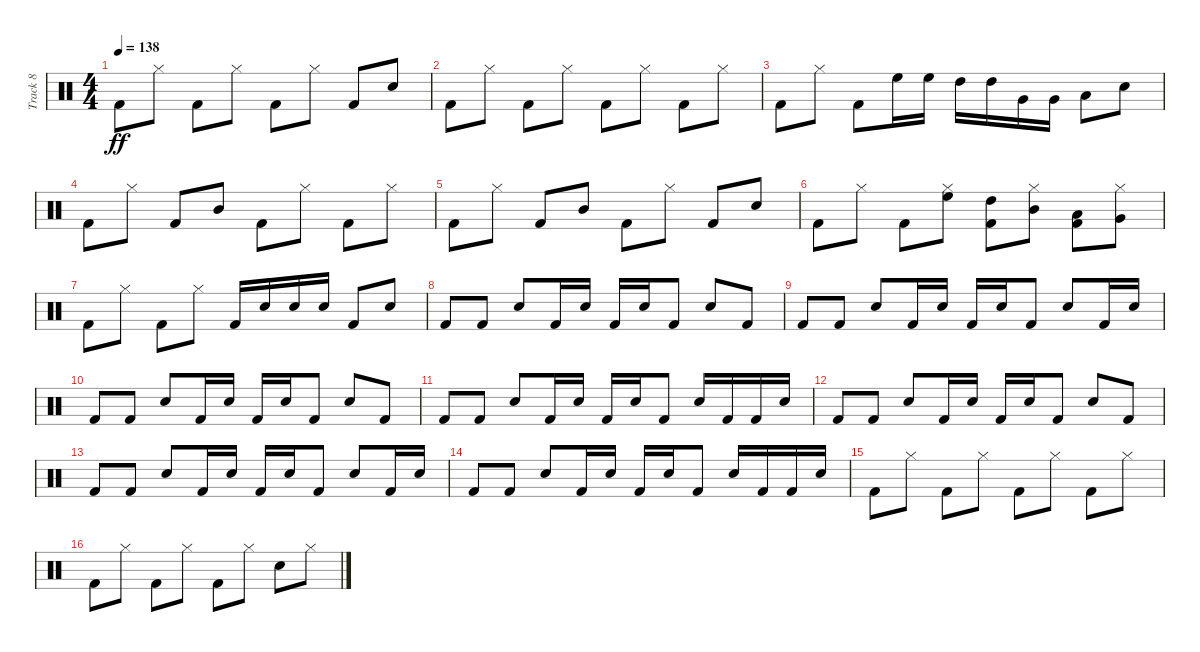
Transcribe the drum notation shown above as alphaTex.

\track ("Track 8" "Track 8") {instrument percussion}
\staff {score}
\articulation defaults
\ts (4 4)
\tempo 138
\clef neutral
\ks c "Kick (hit) 2".8{dy ff} "Hi-Hat (closed)".8 "Kick (hit) 2".8 "Hi-Hat (closed)".8 "Kick (hit) 2".8 "Hi-Hat (closed)".8 "Kick (hit) 2".8 "Snare (hit) 2".8
|
"Kick (hit) 2".8 "Hi-Hat (closed)".8 "Kick (hit) 2".8 "Hi-Hat (closed)".8 "Kick (hit) 2".8 "Hi-Hat (closed)".8 "Kick (hit) 2".8 "Hi-Hat (closed)".8 |
"Kick (hit) 2".8 "Hi-Hat (closed)".8 "Kick (hit) 2".8 "High Floor Tom (hit)".16 "High Floor Tom (hit)".16 "High Tom (hit)".16 "High Tom (hit)".16 "Very Low Tom (hit)".16 "Very Low Tom (hit)".16 "Low Tom (hit)".8 "Snare (hit) 2".8 |
"Kick (hit) 2".8 "Hi-Hat (closed)".8 "Kick (hit) 2".8 "Mid Tom (hit)".8 "Kick (hit) 2".8 "Hi-Hat (closed)".8 "Kick (hit) 2".8 "Hi-Hat (closed)".8 |
"Kick (hit) 2".8 "Hi-Hat (closed)".8 "Kick (hit) 2".8 "Mid Tom (hit)".8 "Kick (hit) 2".8 "Hi-Hat (closed)".8 "Kick (hit) 2".8 "Snare (hit) 2".8 |
"Kick (hit) 2".8 "Hi-Hat (closed)".8 "Kick (hit) 2".8 ("Hi-Hat (closed)" "High Floor Tom (hit)").8 ("Kick (hit) 2" "High Tom (hit)").8 ("Hi-Hat (closed)" "Mid Tom (hit)").8 ("Kick (hit) 2" "Low Tom (hit)").8 ("Hi-Hat (closed)" "Very Low Tom (hit)").8 |
"Kick (hit) 2".8 "Hi-Hat (closed)".8 "Kick (hit) 2".8 "Hi-Hat (closed)".8 "Kick (hit) 2".16 "Snare (hit) 2".16 "Snare (hit) 2".16 "Snare (hit) 2".16 "Kick (hit) 2".8 "Snare (hit) 2".8 |
"Kick (hit) 2".8 "Kick (hit) 2".8 "Snare (hit) 2".8 "Kick (hit) 2".16 "Snare (hit) 2".16 "Kick (hit) 2".16 "Snare (hit) 2".16 "Kick (hit) 2".8 "Snare (hit) 2".8 "Kick (hit) 2".8 |
"Kick (hit) 2".8 "Kick (hit) 2".8 "Snare (hit) 2".8 "Kick (hit) 2".16 "Snare (hit) 2".16 "Kick (hit) 2".16 "Snare (hit) 2".16 "Kick (hit) 2".8 "Snare (hit) 2".8 "Kick (hit) 2".16 "Snare (hit) 2".16 |
"Kick (hit) 2".8 "Kick (hit) 2".8 "Snare (hit) 2".8 "Kick (hit) 2".16 "Snare (hit) 2".16 "Kick (hit) 2".16 "Snare (hit) 2".16 "Kick (hit) 2".8 "Snare (hit) 2".8 "Kick (hit) 2".8 |
"Kick (hit) 2".8 "Kick (hit) 2".8 "Snare (hit) 2".8 "Kick (hit) 2".16 "Snare (hit) 2".16 "Kick (hit) 2".16 "Snare (hit) 2".16 "Kick (hit) 2".8 "Snare (hit) 2".16 "Kick (hit) 2".16 "Kick (hit) 2".16 "Snare (hit) 2".16 |
"Kick (hit) 2".8 "Kick (hit) 2".8 "Snare (hit) 2".8 "Kick (hit) 2".16 "Snare (hit) 2".16 "Kick (hit) 2".16 "Snare (hit) 2".16 "Kick (hit) 2".8 "Snare (hit) 2".8 "Kick (hit) 2".8 |
"Kick (hit) 2".8 "Kick (hit) 2".8 "Snare (hit) 2".8 "Kick (hit) 2".16 "Snare (hit) 2".16 "Kick (hit) 2".16 "Snare (hit) 2".16 "Kick (hit) 2".8 "Snare (hit) 2".8 "Kick (hit) 2".16 "Snare (hit) 2".16 |
"Kick (hit) 2".8 "Kick (hit) 2".8 "Snare (hit) 2".8 "Kick (hit) 2".16 "Snare (hit) 2".16 "Kick (hit) 2".16 "Snare (hit) 2".16 "Kick (hit) 2".8 "Snare (hit) 2".16 "Kick (hit) 2".16 "Kick (hit) 2".16 "Snare (hit) 2".16 |
"Kick (hit) 2".8 "Hi-Hat (closed)".8 "Kick (hit) 2".8 "Hi-Hat (closed)".8 "Kick (hit) 2".8 "Hi-Hat (closed)".8 "Kick (hit) 2".8 "Hi-Hat (closed)".8 |
"Kick (hit) 2".8 "Hi-Hat (closed)".8 "Kick (hit) 2".8 "Hi-Hat (closed)".8 "Kick (hit) 2".8 "Hi-Hat (closed)".8 "Snare (hit) 2".8 "Hi-Hat (closed)".8
